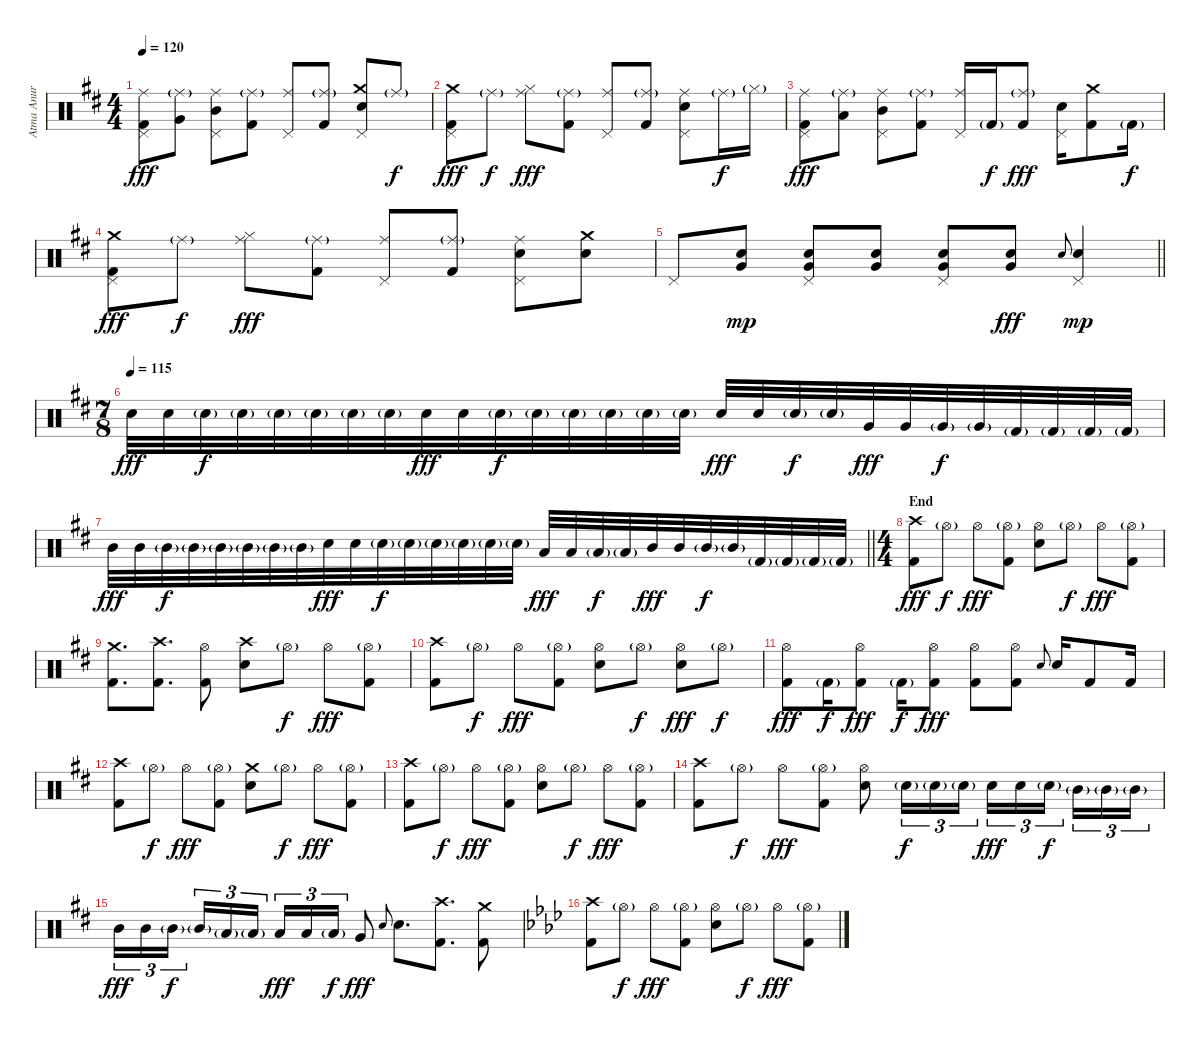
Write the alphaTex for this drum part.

\track ("Atma Anur" "Atma Anur") {instrument percussion}
\staff {score}
\articulation defaults
\ts (4 4)
\tempo 120
\clef neutral
\ks bminor
("Ride (middle)" "Pedal Hi-Hat (hit)" "Kick (hit) 2").8{dy fff} ("Ride (middle)"{g} "Very Low Tom (hit)").8 ("Ride (middle)" "Mid Tom (hit)" "Pedal Hi-Hat (hit)").8 ("Ride (middle)"{g} "Kick (hit) 2").8 ("Ride (middle)" "Pedal Hi-Hat (hit)").8 ("Ride (middle)"{g} "Kick (hit) 2").8 ("Crash medium (hit)" "Electric Snare (hit)" "Pedal Hi-Hat (hit)").8 "Ride (middle)"{g}.8{dy f} |
("Crash medium (hit)" "Pedal Hi-Hat (hit)" "Kick (hit) 2").8{dy fff} "Ride (middle)"{g}.8{dy f} ("Ride (middle)" "Hi-Hat (closed)").8{dy fff} ("Ride (middle)"{g} "Kick (hit) 2").8 ("Ride (middle)" "Pedal Hi-Hat (hit)").8 ("Ride (middle)"{g} "Kick (hit) 2").8 ("Ride (middle)" "Electric Snare (hit)" "Pedal Hi-Hat (hit)").8 "Ride (middle)"{g}.16{dy f} "Hi-Hat (closed)"{g}.16 |
("Ride (middle)" "Pedal Hi-Hat (hit)" "Kick (hit) 2").8{dy fff} ("Ride (middle)"{g} "Low Tom (hit)").8 ("Ride (middle)" "Mid Tom (hit)" "Pedal Hi-Hat (hit)").8 ("Ride (middle)"{g} "Kick (hit) 2").8 ("Ride (middle)" "Pedal Hi-Hat (hit)").16 "Kick (hit) 2"{g}.16{dy f} ("Ride (middle)"{g} "Kick (hit) 2").8{dy fff} ("Electric Snare (hit)" "Pedal Hi-Hat (hit)").16 ("Crash medium (hit)" "Kick (hit) 2").8 "Kick (hit) 2"{g}.16{dy f} |
("Crash medium (hit)" "Pedal Hi-Hat (hit)" "Kick (hit) 2").8{dy fff} "Ride (middle)"{g}.8{dy f} ("Ride (middle)" "Hi-Hat (closed)").8{dy fff} ("Ride (middle)"{g} "Kick (hit) 2").8 ("Ride (middle)" "Pedal Hi-Hat (hit)").8 ("Ride (middle)"{g} "Kick (hit) 2").8 ("Ride (middle)" "Electric Snare (hit)" "Pedal Hi-Hat (hit)").8 ("Crash medium (hit)" "Electric Snare (hit)").8 |
\barLineRight lightlight "Pedal Hi-Hat (hit)".8
("Very Low Tom (hit)" "Electric Snare (hit)").8{dy mp} ("Very Low Tom (hit)" "Electric Snare (hit)" "Pedal Hi-Hat (hit)").8 ("Very Low Tom (hit)" "Electric Snare (hit)").8 ("Very Low Tom (hit)" "Electric Snare (hit)" "Pedal Hi-Hat (hit)").8 ("Very Low Tom (hit)" "Electric Snare (hit)").8{dy fff} "Electric Snare (hit)".8{gr onbeat} ("Electric Snare (hit)" "Pedal Hi-Hat (hit)").4{dy mp} |
\ts (7 8)
\tempo (115)
"Electric Snare (hit)".32{dy fff} "Electric Snare (hit)".32 "Electric Snare (hit)"{g}.32{dy f} "Electric Snare (hit)"{g}.32 "Electric Snare (hit)"{g}.32 "Electric Snare (hit)"{g}.32 "Electric Snare (hit)"{g}.32 "Electric Snare (hit)"{g}.32 "Electric Snare (hit)".32{dy fff} "Electric Snare (hit)".32 "Electric Snare (hit)"{g}.32{dy f} "Electric Snare (hit)"{g}.32 "Electric Snare (hit)"{g}.32 "Electric Snare (hit)"{g}.32 "Electric Snare (hit)"{g}.32 "Electric Snare (hit)"{g}.32 "Electric Snare (hit)".32{dy fff} "Electric Snare (hit)".32 "Electric Snare (hit)"{g}.32{dy f} "Electric Snare (hit)"{g}.32 "Very Low Tom (hit)".32{dy fff} "Very Low Tom (hit)".32 "Very Low Tom (hit)"{g}.32{dy f} "Very Low Tom (hit)"{g}.32 "Kick (hit) 2"{g}.32 "Kick (hit) 2"{g}.32 "Kick (hit) 2"{g}.32 "Kick (hit) 2"{g}.32 |
\barLineRight lightlight "Mid Tom (hit)".32{dy fff} "Mid Tom (hit)".32 "Mid Tom (hit)"{g}.32{dy f} "Mid Tom (hit)"{g}.32 "Mid Tom (hit)"{g}.32 "Mid Tom (hit)"{g}.32 "Mid Tom (hit)"{g}.32 "Mid Tom (hit)"{g}.32 "Electric Snare (hit)".32{dy fff} "Electric Snare (hit)".32 "Electric Snare (hit)"{g}.32{dy f} "Electric Snare (hit)"{g}.32 "Electric Snare (hit)"{g}.32 "Electric Snare (hit)"{g}.32 "Electric Snare (hit)"{g}.32 "Electric Snare (hit)"{g}.32 "Low Tom (hit)".32{dy fff} "Low Tom (hit)".32 "Low Tom (hit)"{g}.32{dy f} "Low Tom (hit)"{g}.32 "Mid Tom (hit)".32{dy fff} "Mid Tom (hit)".32 "Mid Tom (hit)"{g}.32{dy f} "Mid Tom (hit)"{g}.32 "Kick (hit) 2"{g}.32 "Kick (hit) 2"{g}.32 "Kick (hit) 2"{g}.32 "Kick (hit) 2"{g}.32
|
\ts (4 4)
\section ("" "End")
("Crash high (hit)" "Kick (hit) 2").8{dy fff} "Hi-Hat (open)"{g}.8{dy f} "Hi-Hat (open)".8{dy fff} ("Hi-Hat (open)"{g} "Kick (hit) 2").8 ("Hi-Hat (open)" "Electric Snare (hit)").8 "Hi-Hat (open)"{g}.8{dy f} "Hi-Hat (open)".8{dy fff} ("Hi-Hat (open)"{g} "Kick (hit) 2").8 |
("Crash medium (hit)" "Kick (hit) 2").8{d} ("Crash high (hit)" "Kick (hit) 2").8{d} ("Hi-Hat (open)" "Kick (hit) 2").8 ("Crash high (hit)" "Electric Snare (hit)").8 "Hi-Hat (open)"{g}.8{dy f} "Hi-Hat (open)".8{dy fff} ("Hi-Hat (open)"{g} "Kick (hit) 2").8 |
("Crash high (hit)" "Kick (hit) 2").8 "Hi-Hat (open)"{g}.8{dy f} "Hi-Hat (open)".8{dy fff} ("Hi-Hat (open)"{g} "Kick (hit) 2").8 ("Hi-Hat (open)" "Electric Snare (hit)").8 "Hi-Hat (open)"{g}.8{dy f} ("Hi-Hat (open)" "Electric Snare (hit)").8{dy fff} "Hi-Hat (open)"{g}.8{dy f} |
("Hi-Hat (open)" "Kick (hit) 2").8{dy fff} "Kick (hit) 2"{g}.16{dy f} ("Hi-Hat (open)" "Kick (hit) 2").8{dy fff} "Kick (hit) 2"{g}.16{dy f} ("Hi-Hat (open)" "Kick (hit) 2").8{dy fff} ("Hi-Hat (open)" "Kick (hit) 2").8 ("Hi-Hat (open)" "Kick (hit) 2").8 "Electric Snare (hit)".8{gr onbeat} "Electric Snare (hit)".16 "Kick (hit) 2".8 "Kick (hit) 2".16 |
("Crash high (hit)" "Kick (hit) 2").8 "Hi-Hat (open)"{g}.8{dy f} "Hi-Hat (open)".8{dy fff} ("Hi-Hat (open)"{g} "Kick (hit) 2").8 ("Crash medium (hit)" "Electric Snare (hit)").8 "Hi-Hat (open)"{g}.8{dy f} "Hi-Hat (open)".8{dy fff} ("Hi-Hat (open)"{g} "Kick (hit) 2").8 |
("Crash high (hit)" "Kick (hit) 2").8 "Hi-Hat (open)"{g}.8{dy f} "Hi-Hat (open)".8{dy fff} ("Hi-Hat (open)"{g} "Kick (hit) 2").8 ("Hi-Hat (open)" "Electric Snare (hit)").8 "Hi-Hat (open)"{g}.8{dy f} "Hi-Hat (open)".8{dy fff} ("Hi-Hat (open)"{g} "Kick (hit) 2").8 |
("Crash high (hit)" "Kick (hit) 2").8 "Hi-Hat (open)"{g}.8{dy f} "Hi-Hat (open)".8{dy fff} ("Hi-Hat (open)"{g} "Kick (hit) 2").8 ("Hi-Hat (open)" "Electric Snare (hit)").8 "Electric Snare (hit)"{g}.16{tu (3 2) dy f} "Electric Snare (hit)"{g}.16{tu (3 2)} "Electric Snare (hit)"{g}.16{tu (3 2)} "Electric Snare (hit)".16{tu (3 2) dy fff} "Electric Snare (hit)".16{tu (3 2)} "Electric Snare (hit)"{g}.16{tu (3 2) dy f beam splitsecondary} "Mid Tom (hit)"{g}.16{tu (3 2)} "Mid Tom (hit)"{g}.16{tu (3 2)} "Mid Tom (hit)"{g}.16{tu (3 2)} |
"Mid Tom (hit)".16{tu (3 2) dy fff} "Mid Tom (hit)".16{tu (3 2)} "Mid Tom (hit)"{g}.16{tu (3 2) dy f beam splitsecondary} "Mid Tom (hit)"{g}.16{tu (3 2)} "Low Tom (hit)"{g}.16{tu (3 2)} "Low Tom (hit)"{g}.16{tu (3 2)} "Low Tom (hit)".16{tu (3 2) dy fff} "Low Tom (hit)".16{tu (3 2)} "Low Tom (hit)"{g}.16{tu (3 2) dy f} "Very Low Tom (hit)".8{dy fff} "Electric Snare (hit)".8{gr onbeat} "Electric Snare (hit)".8{d} ("Crash high (hit)" "Kick (hit) 2").8{d} ("Crash medium (hit)" "Kick (hit) 2").8 |
\ks fminor
("Crash high (hit)" "Kick (hit) 2").8 "Hi-Hat (open)"{g}.8{dy f} "Hi-Hat (open)".8{dy fff} ("Hi-Hat (open)"{g} "Kick (hit) 2").8 ("Hi-Hat (open)" "Electric Snare (hit)").8 "Hi-Hat (open)"{g}.8{dy f} "Hi-Hat (open)".8{dy fff} ("Hi-Hat (open)"{g} "Kick (hit) 2").8
